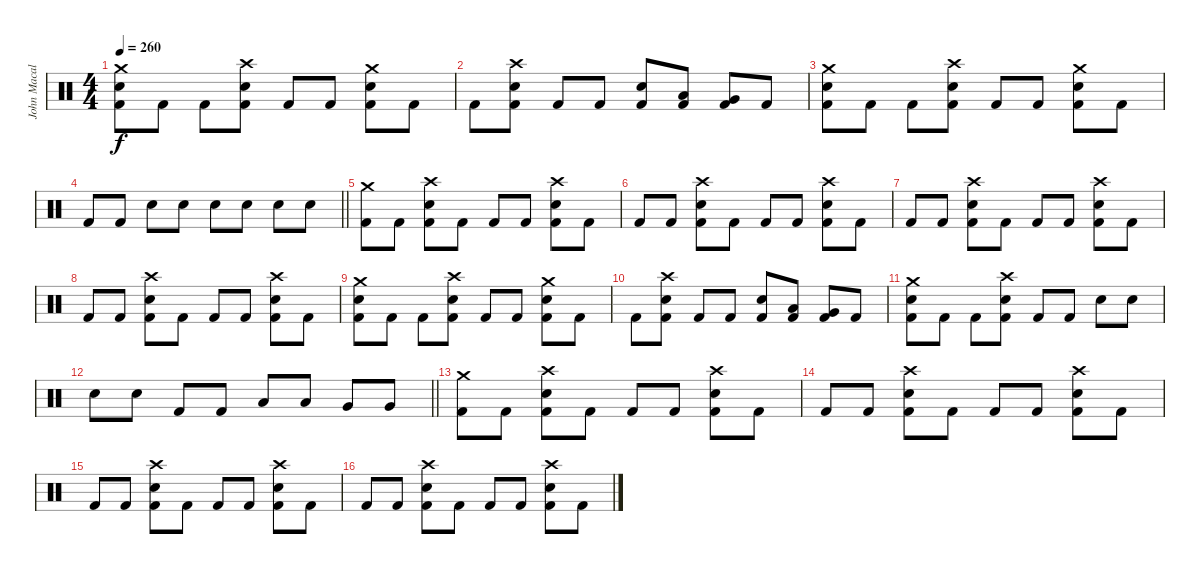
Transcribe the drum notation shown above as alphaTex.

\track ("John Macaluso" "John Macal") {instrument percussion}
\staff {score}
\articulation defaults
\ts (4 4)
\tempo 260
\clef neutral
\ks c
("Crash medium (hit)" "Snare (hit) 2" "Kick (hit) 2").8{dy f} "Kick (hit) 2".8 "Kick (hit) 2".8 ("Crash high (hit)" "Snare (hit) 2" "Kick (hit) 2").8 "Kick (hit) 2".8 "Kick (hit) 2".8 ("Crash medium (hit)" "Snare (hit) 2" "Kick (hit) 2").8 "Kick (hit) 2".8 |
"Kick (hit) 2".8 ("Crash high (hit)" "Snare (hit) 2" "Kick (hit) 2").8 "Kick (hit) 2".8 "Kick (hit) 2".8 ("Snare (hit) 2" "Kick (hit) 2").8 ("Low Tom (hit)" "Kick (hit) 2").8 ("Very Low Tom (hit)" "Kick (hit) 2").8 "Kick (hit) 2".8 |
("Crash medium (hit)" "Snare (hit) 2" "Kick (hit) 2").8 "Kick (hit) 2".8 "Kick (hit) 2".8 ("Crash high (hit)" "Snare (hit) 2" "Kick (hit) 2").8 "Kick (hit) 2".8 "Kick (hit) 2".8 ("Crash medium (hit)" "Snare (hit) 2" "Kick (hit) 2").8 "Kick (hit) 2".8 |
\barLineRight lightlight "Kick (hit) 2".8 "Kick (hit) 2".8 "Snare (hit) 2".8 "Snare (hit) 2".8 "Snare (hit) 2".8 "Snare (hit) 2".8 "Snare (hit) 2".8 "Snare (hit) 2".8
|
("Crash medium (hit)" "Kick (hit) 2").8 "Kick (hit) 2".8 ("Crash high (hit)" "Snare (hit) 2" "Kick (hit) 2").8 "Kick (hit) 2".8 "Kick (hit) 2".8 "Kick (hit) 2".8 ("Crash high (hit)" "Snare (hit) 2" "Kick (hit) 2").8 "Kick (hit) 2".8 |
"Kick (hit) 2".8 "Kick (hit) 2".8 ("Crash high (hit)" "Snare (hit) 2" "Kick (hit) 2").8 "Kick (hit) 2".8 "Kick (hit) 2".8 "Kick (hit) 2".8 ("Crash high (hit)" "Snare (hit) 2" "Kick (hit) 2").8 "Kick (hit) 2".8 |
"Kick (hit) 2".8 "Kick (hit) 2".8 ("Crash high (hit)" "Snare (hit) 2" "Kick (hit) 2").8 "Kick (hit) 2".8 "Kick (hit) 2".8 "Kick (hit) 2".8 ("Crash high (hit)" "Snare (hit) 2" "Kick (hit) 2").8 "Kick (hit) 2".8 |
"Kick (hit) 2".8 "Kick (hit) 2".8 ("Crash high (hit)" "Snare (hit) 2" "Kick (hit) 2").8 "Kick (hit) 2".8 "Kick (hit) 2".8 "Kick (hit) 2".8 ("Crash high (hit)" "Snare (hit) 2" "Kick (hit) 2").8 "Kick (hit) 2".8 |
("Crash medium (hit)" "Snare (hit) 2" "Kick (hit) 2").8 "Kick (hit) 2".8 "Kick (hit) 2".8 ("Crash high (hit)" "Snare (hit) 2" "Kick (hit) 2").8 "Kick (hit) 2".8 "Kick (hit) 2".8 ("Crash medium (hit)" "Snare (hit) 2" "Kick (hit) 2").8 "Kick (hit) 2".8 |
"Kick (hit) 2".8 ("Crash high (hit)" "Snare (hit) 2" "Kick (hit) 2").8 "Kick (hit) 2".8 "Kick (hit) 2".8 ("Snare (hit) 2" "Kick (hit) 2").8 ("Low Tom (hit)" "Kick (hit) 2").8 ("Very Low Tom (hit)" "Kick (hit) 2").8 "Kick (hit) 2".8 |
("Crash medium (hit)" "Snare (hit) 2" "Kick (hit) 2").8 "Kick (hit) 2".8 "Kick (hit) 2".8 ("Crash high (hit)" "Snare (hit) 2" "Kick (hit) 2").8 "Kick (hit) 2".8 "Kick (hit) 2".8 "Snare (hit) 2".8 "Snare (hit) 2".8 |
\barLineRight lightlight "Snare (hit) 2".8 "Snare (hit) 2".8 "Kick (hit) 2".8 "Kick (hit) 2".8 "Low Tom (hit)".8 "Low Tom (hit)".8 "Very Low Tom (hit)".8 "Very Low Tom (hit)".8
|
("Crash medium (hit)" "Kick (hit) 2").8 "Kick (hit) 2".8 ("Crash high (hit)" "Snare (hit) 2" "Kick (hit) 2").8 "Kick (hit) 2".8 "Kick (hit) 2".8 "Kick (hit) 2".8 ("Crash high (hit)" "Snare (hit) 2" "Kick (hit) 2").8 "Kick (hit) 2".8 |
"Kick (hit) 2".8 "Kick (hit) 2".8 ("Crash high (hit)" "Snare (hit) 2" "Kick (hit) 2").8 "Kick (hit) 2".8 "Kick (hit) 2".8 "Kick (hit) 2".8 ("Crash high (hit)" "Snare (hit) 2" "Kick (hit) 2").8 "Kick (hit) 2".8 |
"Kick (hit) 2".8 "Kick (hit) 2".8 ("Crash high (hit)" "Snare (hit) 2" "Kick (hit) 2").8 "Kick (hit) 2".8 "Kick (hit) 2".8 "Kick (hit) 2".8 ("Crash high (hit)" "Snare (hit) 2" "Kick (hit) 2").8 "Kick (hit) 2".8 |
"Kick (hit) 2".8 "Kick (hit) 2".8 ("Crash high (hit)" "Snare (hit) 2" "Kick (hit) 2").8 "Kick (hit) 2".8 "Kick (hit) 2".8 "Kick (hit) 2".8 ("Crash high (hit)" "Snare (hit) 2" "Kick (hit) 2").8 "Kick (hit) 2".8
